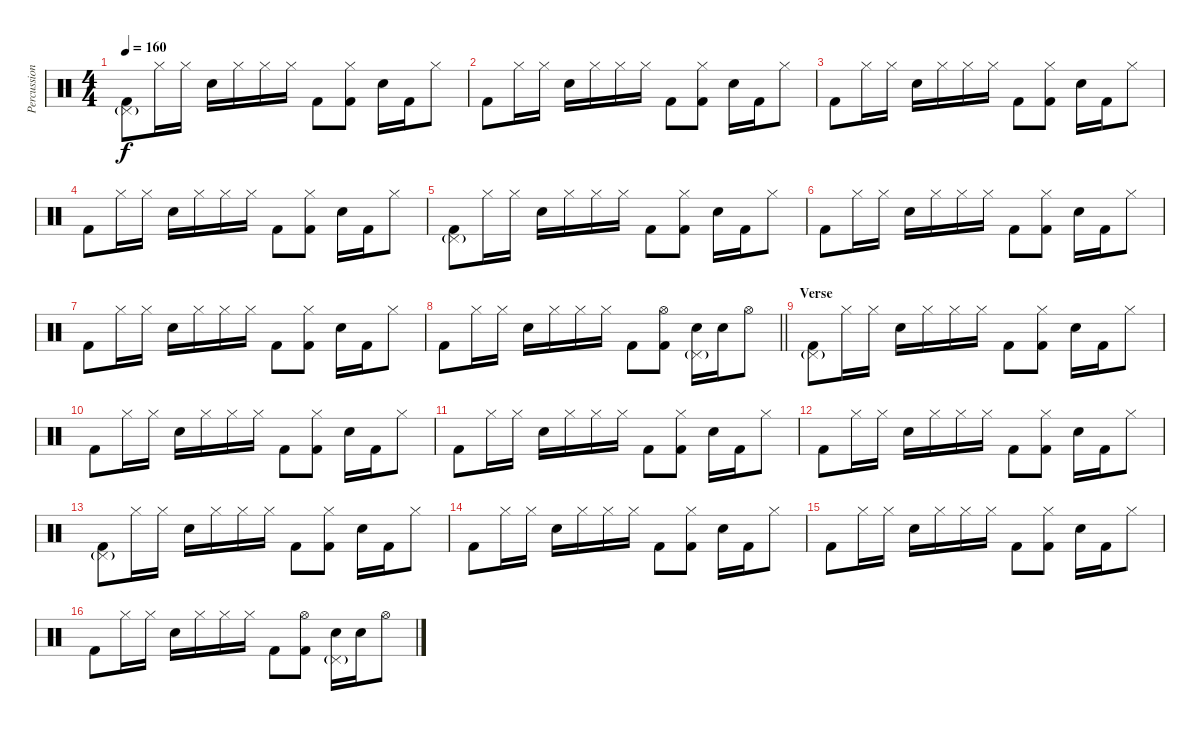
\track ("Percussion" "Percussion") {instrument percussion}
\staff {score}
\articulation defaults
\ts (4 4)
\tempo 160
\clef neutral
\ks c
("Pedal Hi-Hat (hit)"{g} "Kick (hit) 2").8{dy f} "Hi-Hat (closed)".16 "Hi-Hat (closed)".16 "Electric Snare (hit)".16 "Hi-Hat (closed)".16 "Hi-Hat (closed)".16 "Hi-Hat (closed)".16 "Kick (hit) 2".8 ("Hi-Hat (closed)" "Kick (hit) 2").8 "Electric Snare (hit)".16 "Kick (hit) 2".16 "Hi-Hat (closed)".8 |
"Kick (hit) 2".8 "Hi-Hat (closed)".16 "Hi-Hat (closed)".16 "Electric Snare (hit)".16 "Hi-Hat (closed)".16 "Hi-Hat (closed)".16 "Hi-Hat (closed)".16 "Kick (hit) 2".8 ("Hi-Hat (closed)" "Kick (hit) 2").8 "Electric Snare (hit)".16 "Kick (hit) 2".16 "Hi-Hat (closed)".8 |
"Kick (hit) 2".8 "Hi-Hat (closed)".16 "Hi-Hat (closed)".16 "Electric Snare (hit)".16 "Hi-Hat (closed)".16 "Hi-Hat (closed)".16 "Hi-Hat (closed)".16 "Kick (hit) 2".8 ("Hi-Hat (closed)" "Kick (hit) 2").8 "Electric Snare (hit)".16 "Kick (hit) 2".16 "Hi-Hat (closed)".8 |
"Kick (hit) 2".8 "Hi-Hat (closed)".16 "Hi-Hat (closed)".16 "Electric Snare (hit)".16 "Hi-Hat (closed)".16 "Hi-Hat (closed)".16 "Hi-Hat (closed)".16 "Kick (hit) 2".8 ("Hi-Hat (closed)" "Kick (hit) 2").8 "Electric Snare (hit)".16 "Kick (hit) 2".16 "Hi-Hat (closed)".8 |
("Pedal Hi-Hat (hit)"{g} "Kick (hit) 2").8 "Hi-Hat (closed)".16 "Hi-Hat (closed)".16 "Electric Snare (hit)".16 "Hi-Hat (closed)".16 "Hi-Hat (closed)".16 "Hi-Hat (closed)".16 "Kick (hit) 2".8 ("Hi-Hat (closed)" "Kick (hit) 2").8 "Electric Snare (hit)".16 "Kick (hit) 2".16 "Hi-Hat (closed)".8 |
"Kick (hit) 2".8 "Hi-Hat (closed)".16 "Hi-Hat (closed)".16 "Electric Snare (hit)".16 "Hi-Hat (closed)".16 "Hi-Hat (closed)".16 "Hi-Hat (closed)".16 "Kick (hit) 2".8 ("Hi-Hat (closed)" "Kick (hit) 2").8 "Electric Snare (hit)".16 "Kick (hit) 2".16 "Hi-Hat (closed)".8 |
"Kick (hit) 2".8 "Hi-Hat (closed)".16 "Hi-Hat (closed)".16 "Electric Snare (hit)".16 "Hi-Hat (closed)".16 "Hi-Hat (closed)".16 "Hi-Hat (closed)".16 "Kick (hit) 2".8 ("Hi-Hat (closed)" "Kick (hit) 2").8 "Electric Snare (hit)".16 "Kick (hit) 2".16 "Hi-Hat (closed)".8 |
\barLineRight lightlight "Kick (hit) 2".8 "Hi-Hat (closed)".16 "Hi-Hat (closed)".16 "Electric Snare (hit)".16 "Hi-Hat (closed)".16 "Hi-Hat (closed)".16 "Hi-Hat (closed)".16 "Kick (hit) 2".8
("Hi-Hat (open)" "Kick (hit) 2").8 ("Pedal Hi-Hat (hit)"{g} "Electric Snare (hit)").16 "Electric Snare (hit)".16 "Hi-Hat (open)".8 |
\section ("" "Verse")
("Pedal Hi-Hat (hit)"{g} "Kick (hit) 2").8 "Hi-Hat (closed)".16 "Hi-Hat (closed)".16 "Electric Snare (hit)".16 "Hi-Hat (closed)".16 "Hi-Hat (closed)".16 "Hi-Hat (closed)".16 "Kick (hit) 2".8 ("Hi-Hat (closed)" "Kick (hit) 2").8 "Electric Snare (hit)".16 "Kick (hit) 2".16 "Hi-Hat (closed)".8 |
"Kick (hit) 2".8 "Hi-Hat (closed)".16 "Hi-Hat (closed)".16 "Electric Snare (hit)".16 "Hi-Hat (closed)".16 "Hi-Hat (closed)".16 "Hi-Hat (closed)".16 "Kick (hit) 2".8 ("Hi-Hat (closed)" "Kick (hit) 2").8 "Electric Snare (hit)".16 "Kick (hit) 2".16 "Hi-Hat (closed)".8 |
"Kick (hit) 2".8 "Hi-Hat (closed)".16 "Hi-Hat (closed)".16 "Electric Snare (hit)".16 "Hi-Hat (closed)".16 "Hi-Hat (closed)".16 "Hi-Hat (closed)".16 "Kick (hit) 2".8 ("Hi-Hat (closed)" "Kick (hit) 2").8 "Electric Snare (hit)".16 "Kick (hit) 2".16 "Hi-Hat (closed)".8 |
"Kick (hit) 2".8 "Hi-Hat (closed)".16 "Hi-Hat (closed)".16 "Electric Snare (hit)".16 "Hi-Hat (closed)".16 "Hi-Hat (closed)".16 "Hi-Hat (closed)".16 "Kick (hit) 2".8 ("Hi-Hat (closed)" "Kick (hit) 2").8 "Electric Snare (hit)".16 "Kick (hit) 2".16 "Hi-Hat (closed)".8 |
("Pedal Hi-Hat (hit)"{g} "Kick (hit) 2").8 "Hi-Hat (closed)".16 "Hi-Hat (closed)".16 "Electric Snare (hit)".16 "Hi-Hat (closed)".16 "Hi-Hat (closed)".16 "Hi-Hat (closed)".16 "Kick (hit) 2".8 ("Hi-Hat (closed)" "Kick (hit) 2").8 "Electric Snare (hit)".16 "Kick (hit) 2".16 "Hi-Hat (closed)".8 |
"Kick (hit) 2".8 "Hi-Hat (closed)".16 "Hi-Hat (closed)".16 "Electric Snare (hit)".16 "Hi-Hat (closed)".16 "Hi-Hat (closed)".16 "Hi-Hat (closed)".16 "Kick (hit) 2".8 ("Hi-Hat (closed)" "Kick (hit) 2").8 "Electric Snare (hit)".16 "Kick (hit) 2".16 "Hi-Hat (closed)".8 |
"Kick (hit) 2".8 "Hi-Hat (closed)".16 "Hi-Hat (closed)".16 "Electric Snare (hit)".16 "Hi-Hat (closed)".16 "Hi-Hat (closed)".16 "Hi-Hat (closed)".16 "Kick (hit) 2".8 ("Hi-Hat (closed)" "Kick (hit) 2").8 "Electric Snare (hit)".16 "Kick (hit) 2".16 "Hi-Hat (closed)".8 |
"Kick (hit) 2".8 "Hi-Hat (closed)".16 "Hi-Hat (closed)".16 "Electric Snare (hit)".16 "Hi-Hat (closed)".16 "Hi-Hat (closed)".16 "Hi-Hat (closed)".16 "Kick (hit) 2".8 ("Hi-Hat (open)" "Kick (hit) 2").8 ("Pedal Hi-Hat (hit)"{g} "Electric Snare (hit)").16 "Electric Snare (hit)".16 "Hi-Hat (open)".8
